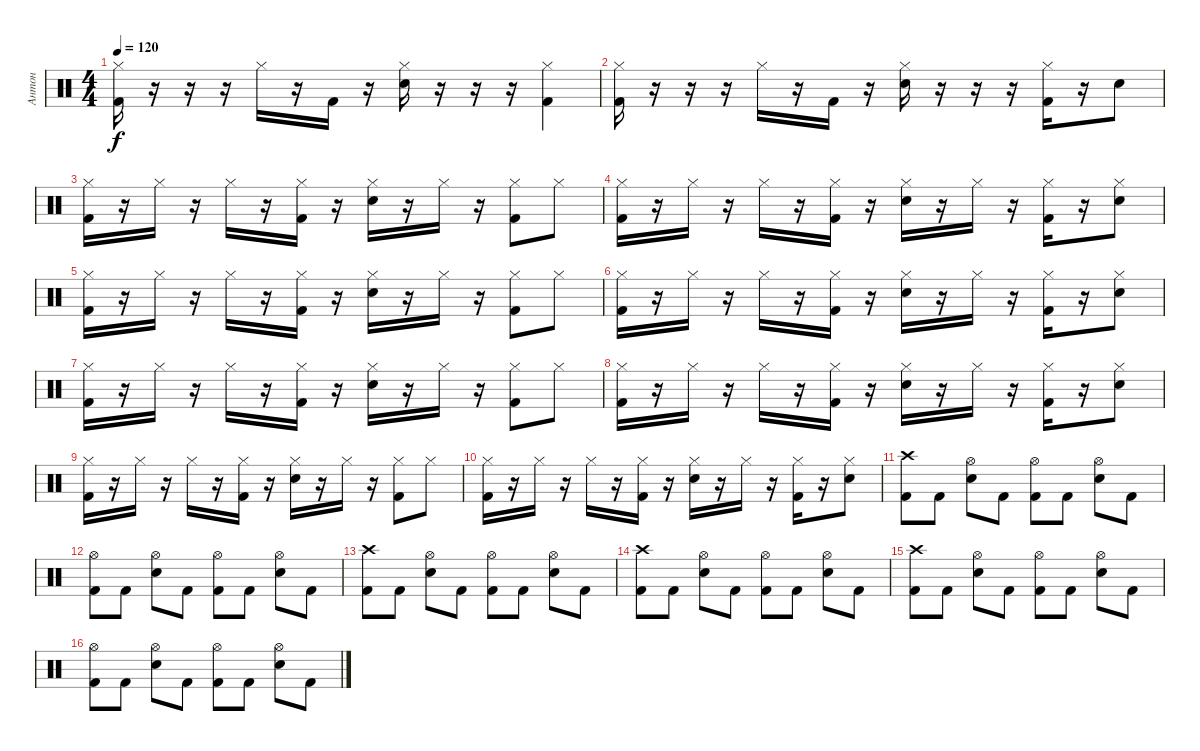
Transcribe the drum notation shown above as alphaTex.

\track ("Антон" "Антон") {instrument percussion}
\staff {score}
\articulation defaults
\ts (4 4)
\tempo 120
\clef neutral
\ks c
("Hi-Hat (closed)" "Kick (hit) 2").16{dy f} r.16 r.16 r.16 "Hi-Hat (closed)".16 r.16 "Kick (hit) 2".16 r.16 ("Hi-Hat (closed)" "Electric Snare (hit)").16 r.16 r.16 r.16 ("Hi-Hat (closed)" "Kick (hit) 2").4 |
("Hi-Hat (closed)" "Kick (hit) 2").16 r.16 r.16 r.16 "Hi-Hat (closed)".16 r.16 "Kick (hit) 2".16 r.16 ("Hi-Hat (closed)" "Electric Snare (hit)").16 r.16 r.16 r.16 ("Hi-Hat (closed)" "Kick (hit) 2").16 r.16 "Electric Snare (hit)".8 |
("Hi-Hat (closed)" "Kick (hit) 2").16 r.16 "Hi-Hat (closed)".16 r.16 "Hi-Hat (closed)".16 r.16 ("Hi-Hat (closed)" "Kick (hit) 2").16 r.16 ("Hi-Hat (closed)" "Electric Snare (hit)").16 r.16 "Hi-Hat (closed)".16 r.16 ("Hi-Hat (closed)" "Kick (hit) 2").8 "Hi-Hat (closed)".8 |
("Hi-Hat (closed)" "Kick (hit) 2").16 r.16 "Hi-Hat (closed)".16 r.16 "Hi-Hat (closed)".16 r.16 ("Hi-Hat (closed)" "Kick (hit) 2").16 r.16 ("Hi-Hat (closed)" "Electric Snare (hit)").16 r.16 "Hi-Hat (closed)".16 r.16 ("Hi-Hat (closed)" "Kick (hit) 2").16 r.16 ("Hi-Hat (closed)" "Electric Snare (hit)").8 |
("Hi-Hat (closed)" "Kick (hit) 2").16 r.16 "Hi-Hat (closed)".16 r.16 "Hi-Hat (closed)".16 r.16 ("Hi-Hat (closed)" "Kick (hit) 2").16 r.16 ("Hi-Hat (closed)" "Electric Snare (hit)").16 r.16 "Hi-Hat (closed)".16 r.16 ("Hi-Hat (closed)" "Kick (hit) 2").8 "Hi-Hat (closed)".8 |
("Hi-Hat (closed)" "Kick (hit) 2").16 r.16 "Hi-Hat (closed)".16 r.16 "Hi-Hat (closed)".16 r.16 ("Hi-Hat (closed)" "Kick (hit) 2").16 r.16 ("Hi-Hat (closed)" "Electric Snare (hit)").16 r.16 "Hi-Hat (closed)".16 r.16 ("Hi-Hat (closed)" "Kick (hit) 2").16 r.16 ("Hi-Hat (closed)" "Electric Snare (hit)").8 |
("Hi-Hat (closed)" "Kick (hit) 2").16 r.16 "Hi-Hat (closed)".16 r.16 "Hi-Hat (closed)".16 r.16 ("Hi-Hat (closed)" "Kick (hit) 2").16 r.16 ("Hi-Hat (closed)" "Electric Snare (hit)").16 r.16 "Hi-Hat (closed)".16 r.16 ("Hi-Hat (closed)" "Kick (hit) 2").8 "Hi-Hat (closed)".8 |
("Hi-Hat (closed)" "Kick (hit) 2").16 r.16 "Hi-Hat (closed)".16 r.16 "Hi-Hat (closed)".16 r.16 ("Hi-Hat (closed)" "Kick (hit) 2").16 r.16 ("Hi-Hat (closed)" "Electric Snare (hit)").16 r.16 "Hi-Hat (closed)".16 r.16 ("Hi-Hat (closed)" "Kick (hit) 2").16 r.16 ("Hi-Hat (closed)" "Electric Snare (hit)").8 |
("Hi-Hat (closed)" "Kick (hit) 2").16 r.16 "Hi-Hat (closed)".16 r.16 "Hi-Hat (closed)".16 r.16 ("Hi-Hat (closed)" "Kick (hit) 2").16 r.16 ("Hi-Hat (closed)" "Electric Snare (hit)").16 r.16 "Hi-Hat (closed)".16 r.16 ("Hi-Hat (closed)" "Kick (hit) 2").8 "Hi-Hat (closed)".8 |
("Hi-Hat (closed)" "Kick (hit) 2").16 r.16 "Hi-Hat (closed)".16 r.16 "Hi-Hat (closed)".16 r.16 ("Hi-Hat (closed)" "Kick (hit) 2").16 r.16 ("Hi-Hat (closed)" "Electric Snare (hit)").16 r.16 "Hi-Hat (closed)".16 r.16 ("Hi-Hat (closed)" "Kick (hit) 2").16 r.16 ("Hi-Hat (closed)" "Electric Snare (hit)").8 |
("Crash high (hit)" "Kick (hit) 2").8 "Kick (hit) 2".8 ("Hi-Hat (open)" "Electric Snare (hit)").8 "Kick (hit) 2".8 ("Hi-Hat (open)" "Kick (hit) 2").8 "Kick (hit) 2".8 ("Hi-Hat (open)" "Electric Snare (hit)").8 "Kick (hit) 2".8 |
("Hi-Hat (open)" "Kick (hit) 2").8 "Kick (hit) 2".8 ("Hi-Hat (open)" "Electric Snare (hit)").8 "Kick (hit) 2".8 ("Hi-Hat (open)" "Kick (hit) 2").8 "Kick (hit) 2".8 ("Hi-Hat (open)" "Electric Snare (hit)").8 "Kick (hit) 2".8 |
("Crash high (hit)" "Kick (hit) 2").8 "Kick (hit) 2".8 ("Hi-Hat (open)" "Electric Snare (hit)").8 "Kick (hit) 2".8 ("Hi-Hat (open)" "Kick (hit) 2").8 "Kick (hit) 2".8 ("Hi-Hat (open)" "Electric Snare (hit)").8 "Kick (hit) 2".8 |
("Crash high (hit)" "Kick (hit) 2").8 "Kick (hit) 2".8 ("Hi-Hat (open)" "Electric Snare (hit)").8 "Kick (hit) 2".8 ("Hi-Hat (open)" "Kick (hit) 2").8 "Kick (hit) 2".8 ("Hi-Hat (open)" "Electric Snare (hit)").8 "Kick (hit) 2".8 |
("Crash high (hit)" "Kick (hit) 2").8 "Kick (hit) 2".8 ("Hi-Hat (open)" "Electric Snare (hit)").8 "Kick (hit) 2".8 ("Hi-Hat (open)" "Kick (hit) 2").8 "Kick (hit) 2".8 ("Hi-Hat (open)" "Electric Snare (hit)").8 "Kick (hit) 2".8 |
("Hi-Hat (open)" "Kick (hit) 2").8 "Kick (hit) 2".8 ("Hi-Hat (open)" "Electric Snare (hit)").8 "Kick (hit) 2".8 ("Hi-Hat (open)" "Kick (hit) 2").8 "Kick (hit) 2".8 ("Hi-Hat (open)" "Electric Snare (hit)").8 "Kick (hit) 2".8
